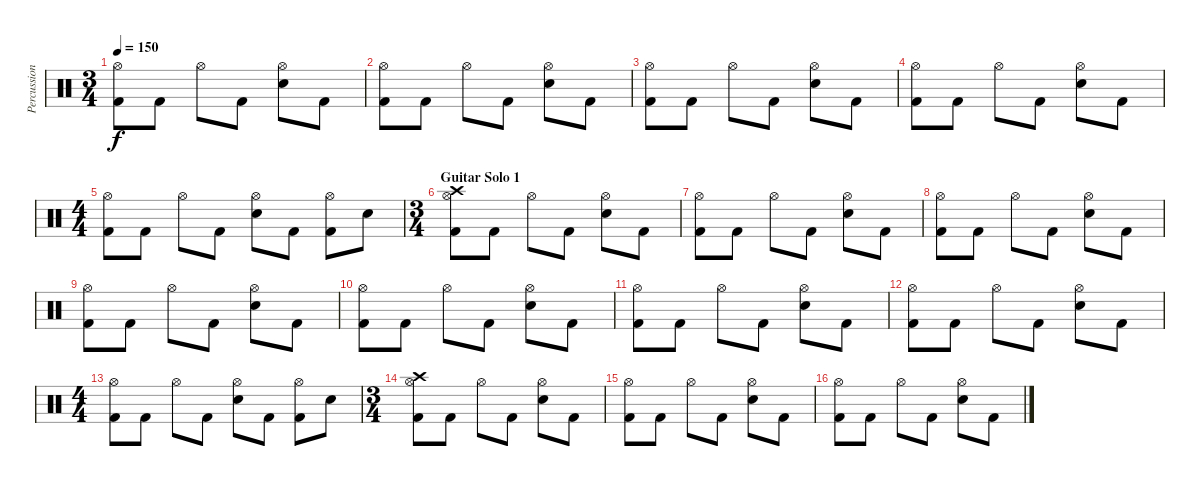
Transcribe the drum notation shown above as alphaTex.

\track ("Percussions" "Percussion") {instrument percussion}
\staff {score}
\articulation defaults
\ts (3 4)
\tempo 150
\clef neutral
\ks c
("Hi-Hat (open)" "Kick (hit) 2").8{dy f} "Kick (hit) 2".8 "Hi-Hat (open)".8 "Kick (hit) 2".8 ("Hi-Hat (open)" "Electric Snare (hit)").8 "Kick (hit) 2".8 |
("Hi-Hat (open)" "Kick (hit) 2").8 "Kick (hit) 2".8 "Hi-Hat (open)".8 "Kick (hit) 2".8 ("Hi-Hat (open)" "Electric Snare (hit)").8 "Kick (hit) 2".8 |
("Hi-Hat (open)" "Kick (hit) 2").8 "Kick (hit) 2".8 "Hi-Hat (open)".8 "Kick (hit) 2".8 ("Hi-Hat (open)" "Electric Snare (hit)").8 "Kick (hit) 2".8 |
("Hi-Hat (open)" "Kick (hit) 2").8 "Kick (hit) 2".8 "Hi-Hat (open)".8 "Kick (hit) 2".8 ("Hi-Hat (open)" "Electric Snare (hit)").8 "Kick (hit) 2".8 |
\ts (4 4)
("Hi-Hat (open)" "Kick (hit) 2").8 "Kick (hit) 2".8 "Hi-Hat (open)".8 "Kick (hit) 2".8 ("Hi-Hat (open)" "Electric Snare (hit)").8 "Kick (hit) 2".8 ("Hi-Hat (open)" "Kick (hit) 2").8 "Electric Snare (hit)".8 |
\ts (3 4)
\section ("" "Guitar Solo 1")
("Crash high (hit)" "Hi-Hat (open)" "Kick (hit) 2").8 "Kick (hit) 2".8 "Hi-Hat (open)".8 "Kick (hit) 2".8 ("Hi-Hat (open)" "Electric Snare (hit)").8 "Kick (hit) 2".8 |
("Hi-Hat (open)" "Kick (hit) 2").8 "Kick (hit) 2".8 "Hi-Hat (open)".8 "Kick (hit) 2".8 ("Hi-Hat (open)" "Electric Snare (hit)").8 "Kick (hit) 2".8 |
("Hi-Hat (open)" "Kick (hit) 2").8 "Kick (hit) 2".8 "Hi-Hat (open)".8 "Kick (hit) 2".8 ("Hi-Hat (open)" "Electric Snare (hit)").8 "Kick (hit) 2".8 |
("Hi-Hat (open)" "Kick (hit) 2").8 "Kick (hit) 2".8 "Hi-Hat (open)".8 "Kick (hit) 2".8 ("Hi-Hat (open)" "Electric Snare (hit)").8 "Kick (hit) 2".8 |
("Hi-Hat (open)" "Kick (hit) 2").8 "Kick (hit) 2".8 "Hi-Hat (open)".8 "Kick (hit) 2".8 ("Hi-Hat (open)" "Electric Snare (hit)").8 "Kick (hit) 2".8 |
("Hi-Hat (open)" "Kick (hit) 2").8 "Kick (hit) 2".8 "Hi-Hat (open)".8 "Kick (hit) 2".8 ("Hi-Hat (open)" "Electric Snare (hit)").8 "Kick (hit) 2".8 |
("Hi-Hat (open)" "Kick (hit) 2").8 "Kick (hit) 2".8 "Hi-Hat (open)".8 "Kick (hit) 2".8 ("Hi-Hat (open)" "Electric Snare (hit)").8 "Kick (hit) 2".8 |
\ts (4 4)
("Hi-Hat (open)" "Kick (hit) 2").8 "Kick (hit) 2".8 "Hi-Hat (open)".8 "Kick (hit) 2".8 ("Hi-Hat (open)" "Electric Snare (hit)").8 "Kick (hit) 2".8 ("Hi-Hat (open)" "Kick (hit) 2").8 "Electric Snare (hit)".8 |
\ts (3 4)
("Crash high (hit)" "Hi-Hat (open)" "Kick (hit) 2").8 "Kick (hit) 2".8 "Hi-Hat (open)".8 "Kick (hit) 2".8 ("Hi-Hat (open)" "Electric Snare (hit)").8 "Kick (hit) 2".8 |
("Hi-Hat (open)" "Kick (hit) 2").8 "Kick (hit) 2".8 "Hi-Hat (open)".8 "Kick (hit) 2".8 ("Hi-Hat (open)" "Electric Snare (hit)").8 "Kick (hit) 2".8 |
("Hi-Hat (open)" "Kick (hit) 2").8 "Kick (hit) 2".8 "Hi-Hat (open)".8 "Kick (hit) 2".8 ("Hi-Hat (open)" "Electric Snare (hit)").8 "Kick (hit) 2".8
